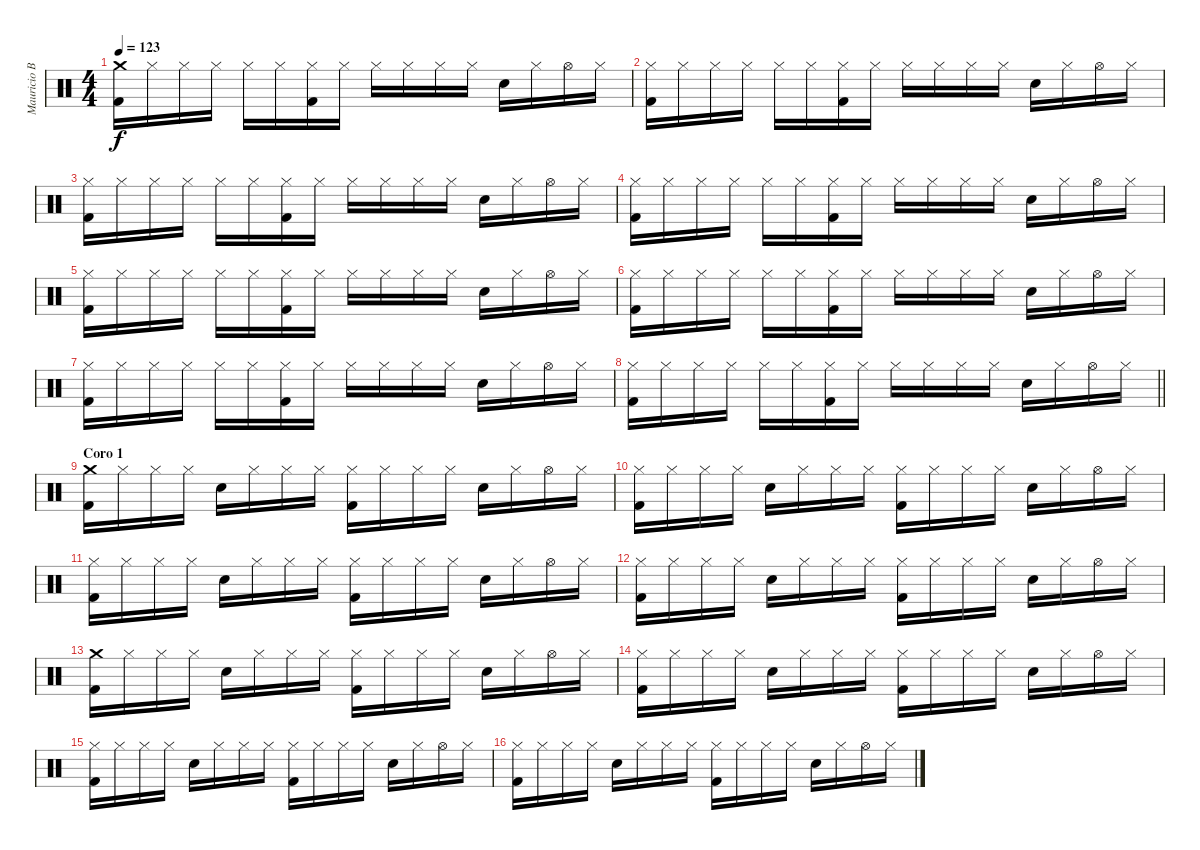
\track ("Mauricio Basualto" "Mauricio B") {instrument percussion}
\staff {score}
\articulation defaults
\ts (4 4)
\tempo 123
\clef neutral
\ks c
("Crash medium (hit)" "Kick (hit) 2").16{dy f} "Hi-Hat (closed)".16 "Hi-Hat (closed)".16 "Hi-Hat (closed)".16 "Hi-Hat (closed)".16 "Hi-Hat (closed)".16 ("Hi-Hat (closed)" "Kick (hit) 2").16 "Hi-Hat (closed)".16 "Hi-Hat (closed)".16 "Hi-Hat (closed)".16 "Hi-Hat (closed)".16 "Hi-Hat (closed)".16 "Electric Snare (hit)".16 "Hi-Hat (closed)".16 "Hi-Hat (open)".16 "Hi-Hat (closed)".16 |
("Hi-Hat (closed)" "Kick (hit) 2").16 "Hi-Hat (closed)".16 "Hi-Hat (closed)".16 "Hi-Hat (closed)".16 "Hi-Hat (closed)".16 "Hi-Hat (closed)".16 ("Hi-Hat (closed)" "Kick (hit) 2").16 "Hi-Hat (closed)".16 "Hi-Hat (closed)".16 "Hi-Hat (closed)".16 "Hi-Hat (closed)".16 "Hi-Hat (closed)".16 "Electric Snare (hit)".16 "Hi-Hat (closed)".16 "Hi-Hat (open)".16 "Hi-Hat (closed)".16 |
("Hi-Hat (closed)" "Kick (hit) 2").16 "Hi-Hat (closed)".16 "Hi-Hat (closed)".16 "Hi-Hat (closed)".16 "Hi-Hat (closed)".16 "Hi-Hat (closed)".16 ("Hi-Hat (closed)" "Kick (hit) 2").16 "Hi-Hat (closed)".16 "Hi-Hat (closed)".16 "Hi-Hat (closed)".16 "Hi-Hat (closed)".16 "Hi-Hat (closed)".16 "Electric Snare (hit)".16 "Hi-Hat (closed)".16 "Hi-Hat (open)".16 "Hi-Hat (closed)".16 |
("Hi-Hat (closed)" "Kick (hit) 2").16 "Hi-Hat (closed)".16 "Hi-Hat (closed)".16 "Hi-Hat (closed)".16 "Hi-Hat (closed)".16 "Hi-Hat (closed)".16 ("Hi-Hat (closed)" "Kick (hit) 2").16 "Hi-Hat (closed)".16 "Hi-Hat (closed)".16 "Hi-Hat (closed)".16 "Hi-Hat (closed)".16 "Hi-Hat (closed)".16 "Electric Snare (hit)".16 "Hi-Hat (closed)".16 "Hi-Hat (open)".16 "Hi-Hat (closed)".16 |
("Hi-Hat (closed)" "Kick (hit) 2").16 "Hi-Hat (closed)".16 "Hi-Hat (closed)".16 "Hi-Hat (closed)".16 "Hi-Hat (closed)".16 "Hi-Hat (closed)".16 ("Hi-Hat (closed)" "Kick (hit) 2").16 "Hi-Hat (closed)".16 "Hi-Hat (closed)".16 "Hi-Hat (closed)".16 "Hi-Hat (closed)".16 "Hi-Hat (closed)".16 "Electric Snare (hit)".16 "Hi-Hat (closed)".16 "Hi-Hat (open)".16 "Hi-Hat (closed)".16 |
("Hi-Hat (closed)" "Kick (hit) 2").16 "Hi-Hat (closed)".16 "Hi-Hat (closed)".16 "Hi-Hat (closed)".16 "Hi-Hat (closed)".16 "Hi-Hat (closed)".16 ("Hi-Hat (closed)" "Kick (hit) 2").16 "Hi-Hat (closed)".16 "Hi-Hat (closed)".16 "Hi-Hat (closed)".16 "Hi-Hat (closed)".16 "Hi-Hat (closed)".16 "Electric Snare (hit)".16 "Hi-Hat (closed)".16 "Hi-Hat (open)".16 "Hi-Hat (closed)".16 |
("Hi-Hat (closed)" "Kick (hit) 2").16 "Hi-Hat (closed)".16 "Hi-Hat (closed)".16 "Hi-Hat (closed)".16 "Hi-Hat (closed)".16 "Hi-Hat (closed)".16 ("Hi-Hat (closed)" "Kick (hit) 2").16 "Hi-Hat (closed)".16 "Hi-Hat (closed)".16 "Hi-Hat (closed)".16 "Hi-Hat (closed)".16 "Hi-Hat (closed)".16 "Electric Snare (hit)".16 "Hi-Hat (closed)".16 "Hi-Hat (open)".16 "Hi-Hat (closed)".16 |
\barLineRight lightlight
("Hi-Hat (closed)" "Kick (hit) 2").16 "Hi-Hat (closed)".16 "Hi-Hat (closed)".16 "Hi-Hat (closed)".16 "Hi-Hat (closed)".16 "Hi-Hat (closed)".16 ("Hi-Hat (closed)" "Kick (hit) 2").16 "Hi-Hat (closed)".16 "Hi-Hat (closed)".16 "Hi-Hat (closed)".16 "Hi-Hat (closed)".16 "Hi-Hat (closed)".16 "Electric Snare (hit)".16 "Hi-Hat (closed)".16 "Hi-Hat (open)".16 "Hi-Hat (closed)".16 |
\section ("" "Coro 1")
("Crash medium (hit)" "Kick (hit) 2").16 "Hi-Hat (closed)".16 "Hi-Hat (closed)".16 "Hi-Hat (closed)".16 "Electric Snare (hit)".16 "Hi-Hat (closed)".16 "Hi-Hat (closed)".16 "Hi-Hat (closed)".16 ("Hi-Hat (closed)" "Kick (hit) 2").16 "Hi-Hat (closed)".16 "Hi-Hat (closed)".16 "Hi-Hat (closed)".16 "Electric Snare (hit)".16 "Hi-Hat (closed)".16 "Hi-Hat (open)".16 "Hi-Hat (closed)".16 |
("Hi-Hat (closed)" "Kick (hit) 2").16 "Hi-Hat (closed)".16 "Hi-Hat (closed)".16 "Hi-Hat (closed)".16 "Electric Snare (hit)".16 "Hi-Hat (closed)".16 "Hi-Hat (closed)".16 "Hi-Hat (closed)".16 ("Hi-Hat (closed)" "Kick (hit) 2").16 "Hi-Hat (closed)".16 "Hi-Hat (closed)".16 "Hi-Hat (closed)".16 "Electric Snare (hit)".16 "Hi-Hat (closed)".16 "Hi-Hat (open)".16 "Hi-Hat (closed)".16 |
("Hi-Hat (closed)" "Kick (hit) 2").16 "Hi-Hat (closed)".16 "Hi-Hat (closed)".16 "Hi-Hat (closed)".16 "Electric Snare (hit)".16 "Hi-Hat (closed)".16 "Hi-Hat (closed)".16 "Hi-Hat (closed)".16 ("Hi-Hat (closed)" "Kick (hit) 2").16 "Hi-Hat (closed)".16 "Hi-Hat (closed)".16 "Hi-Hat (closed)".16 "Electric Snare (hit)".16 "Hi-Hat (closed)".16 "Hi-Hat (open)".16 "Hi-Hat (closed)".16 |
("Hi-Hat (closed)" "Kick (hit) 2").16 "Hi-Hat (closed)".16 "Hi-Hat (closed)".16 "Hi-Hat (closed)".16 "Electric Snare (hit)".16 "Hi-Hat (closed)".16 "Hi-Hat (closed)".16 "Hi-Hat (closed)".16 ("Hi-Hat (closed)" "Kick (hit) 2").16 "Hi-Hat (closed)".16 "Hi-Hat (closed)".16 "Hi-Hat (closed)".16 "Electric Snare (hit)".16 "Hi-Hat (closed)".16 "Hi-Hat (open)".16 "Hi-Hat (closed)".16 |
("Crash medium (hit)" "Kick (hit) 2").16 "Hi-Hat (closed)".16 "Hi-Hat (closed)".16 "Hi-Hat (closed)".16 "Electric Snare (hit)".16 "Hi-Hat (closed)".16 "Hi-Hat (closed)".16 "Hi-Hat (closed)".16 ("Hi-Hat (closed)" "Kick (hit) 2").16 "Hi-Hat (closed)".16 "Hi-Hat (closed)".16 "Hi-Hat (closed)".16 "Electric Snare (hit)".16 "Hi-Hat (closed)".16 "Hi-Hat (open)".16 "Hi-Hat (closed)".16 |
("Hi-Hat (closed)" "Kick (hit) 2").16 "Hi-Hat (closed)".16 "Hi-Hat (closed)".16 "Hi-Hat (closed)".16 "Electric Snare (hit)".16 "Hi-Hat (closed)".16 "Hi-Hat (closed)".16 "Hi-Hat (closed)".16 ("Hi-Hat (closed)" "Kick (hit) 2").16 "Hi-Hat (closed)".16 "Hi-Hat (closed)".16 "Hi-Hat (closed)".16 "Electric Snare (hit)".16 "Hi-Hat (closed)".16 "Hi-Hat (open)".16 "Hi-Hat (closed)".16 |
("Hi-Hat (closed)" "Kick (hit) 2").16 "Hi-Hat (closed)".16 "Hi-Hat (closed)".16 "Hi-Hat (closed)".16 "Electric Snare (hit)".16 "Hi-Hat (closed)".16 "Hi-Hat (closed)".16 "Hi-Hat (closed)".16 ("Hi-Hat (closed)" "Kick (hit) 2").16 "Hi-Hat (closed)".16 "Hi-Hat (closed)".16 "Hi-Hat (closed)".16 "Electric Snare (hit)".16 "Hi-Hat (closed)".16 "Hi-Hat (open)".16 "Hi-Hat (closed)".16 |
("Hi-Hat (closed)" "Kick (hit) 2").16 "Hi-Hat (closed)".16 "Hi-Hat (closed)".16 "Hi-Hat (closed)".16 "Electric Snare (hit)".16 "Hi-Hat (closed)".16 "Hi-Hat (closed)".16 "Hi-Hat (closed)".16 ("Hi-Hat (closed)" "Kick (hit) 2").16 "Hi-Hat (closed)".16 "Hi-Hat (closed)".16 "Hi-Hat (closed)".16 "Electric Snare (hit)".16 "Hi-Hat (closed)".16 "Hi-Hat (open)".16 "Hi-Hat (closed)".16
